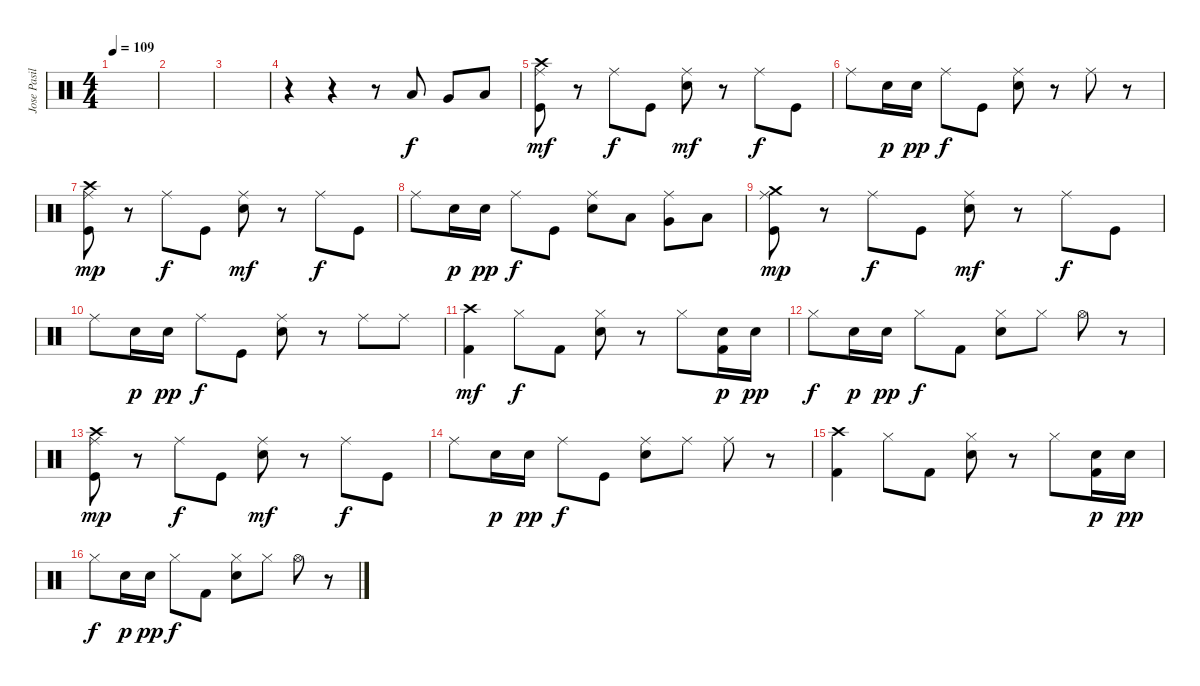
\track ("Jose Pasillas" "Jose Pasil") {instrument percussion}
\staff {score}
\articulation defaults
\ts (4 4)
\tempo 109
\clef neutral
\ks c
|
|
|
r.4 r.4 r.8 "Low Tom (hit)".8 "Very Low Tom (hit)".8 "Low Floor Tom (hit)".8 |
("Ride (middle)" "Crash high (hit)" "Kick (hit)").8{dy mf} r.8 "Ride (middle)".8{dy f} "Kick (hit)".8 ("Ride (middle)" "Electric Snare (hit)").8{dy mf} r.8 "Ride (middle)".8{dy f} "Kick (hit)".8 |
"Ride (middle)".8 "Electric Snare (hit)".16{dy p} "Electric Snare (hit)".16{dy pp} "Ride (middle)".8{dy f} "Kick (hit)".8 ("Ride (middle)" "Electric Snare (hit)").8 r.8 "Ride (middle)".8 r.8 |
("Ride (middle)" "Crash high (hit)" "Kick (hit)").8{dy mp} r.8 "Ride (middle)".8{dy f} "Kick (hit)".8 ("Ride (middle)" "Electric Snare (hit)").8{dy mf} r.8 "Ride (middle)".8{dy f} "Kick (hit)".8 |
"Ride (middle)".8 "Electric Snare (hit)".16{dy p} "Electric Snare (hit)".16{dy pp} "Ride (middle)".8{dy f} "Kick (hit)".8 ("Ride (middle)" "Electric Snare (hit)").8 "Low Tom (hit)".8 ("Ride (middle)" "Very Low Tom (hit)").8 "Low Floor Tom (hit)".8 |
("Ride (middle)" "Crash medium (hit)" "Kick (hit)").8{dy mp} r.8 "Ride (middle)".8{dy f} "Kick (hit)".8 ("Ride (middle)" "Electric Snare (hit)").8{dy mf} r.8 "Ride (middle)".8{dy f} "Kick (hit)".8 |
"Ride (middle)".8 "Electric Snare (hit)".16{dy p} "Electric Snare (hit)".16{dy pp} "Ride (middle)".8{dy f} "Kick (hit)".8 ("Ride (middle)" "Electric Snare (hit)").8 r.8 "Ride (middle)".8 "Ride (middle)".8 |
("Crash high (hit)" "Kick (hit) 2").4{dy mf} "Hi-Hat (closed)".8{dy f} "Kick (hit) 2".8 ("Hi-Hat (closed)" "Electric Snare (hit)").8 r.8 "Hi-Hat (closed)".8 ("Electric Snare (hit)" "Kick (hit) 2").16{dy p} "Electric Snare (hit)".16{dy pp} |
"Hi-Hat (closed)".8{dy f} "Electric Snare (hit)".16{dy p} "Electric Snare (hit)".16{dy pp} "Hi-Hat (closed)".8{dy f} "Kick (hit) 2".8 ("Hi-Hat (closed)" "Electric Snare (hit)").8 "Hi-Hat (closed)".8 "Hi-Hat (open)".8 r.8 |
("Ride (middle)" "Crash high (hit)" "Kick (hit)").8{dy mp} r.8 "Ride (middle)".8{dy f} "Kick (hit)".8 ("Ride (middle)" "Electric Snare (hit)").8{dy mf} r.8 "Ride (middle)".8{dy f} "Kick (hit)".8 |
"Ride (middle)".8 "Electric Snare (hit)".16{dy p} "Electric Snare (hit)".16{dy pp} "Ride (middle)".8{dy f} "Kick (hit)".8 ("Ride (middle)" "Electric Snare (hit)").8 "Ride (middle)".8 "Ride (middle)".8 r.8 |
("Crash high (hit)" "Kick (hit) 2").4 "Hi-Hat (closed)".8 "Kick (hit) 2".8 ("Hi-Hat (closed)" "Electric Snare (hit)").8 r.8 "Hi-Hat (closed)".8 ("Electric Snare (hit)" "Kick (hit) 2").16{dy p} "Electric Snare (hit)".16{dy pp} |
"Hi-Hat (closed)".8{dy f} "Electric Snare (hit)".16{dy p} "Electric Snare (hit)".16{dy pp} "Hi-Hat (closed)".8{dy f} "Kick (hit) 2".8 ("Hi-Hat (closed)" "Electric Snare (hit)").8 "Hi-Hat (closed)".8 "Hi-Hat (open)".8 r.8
